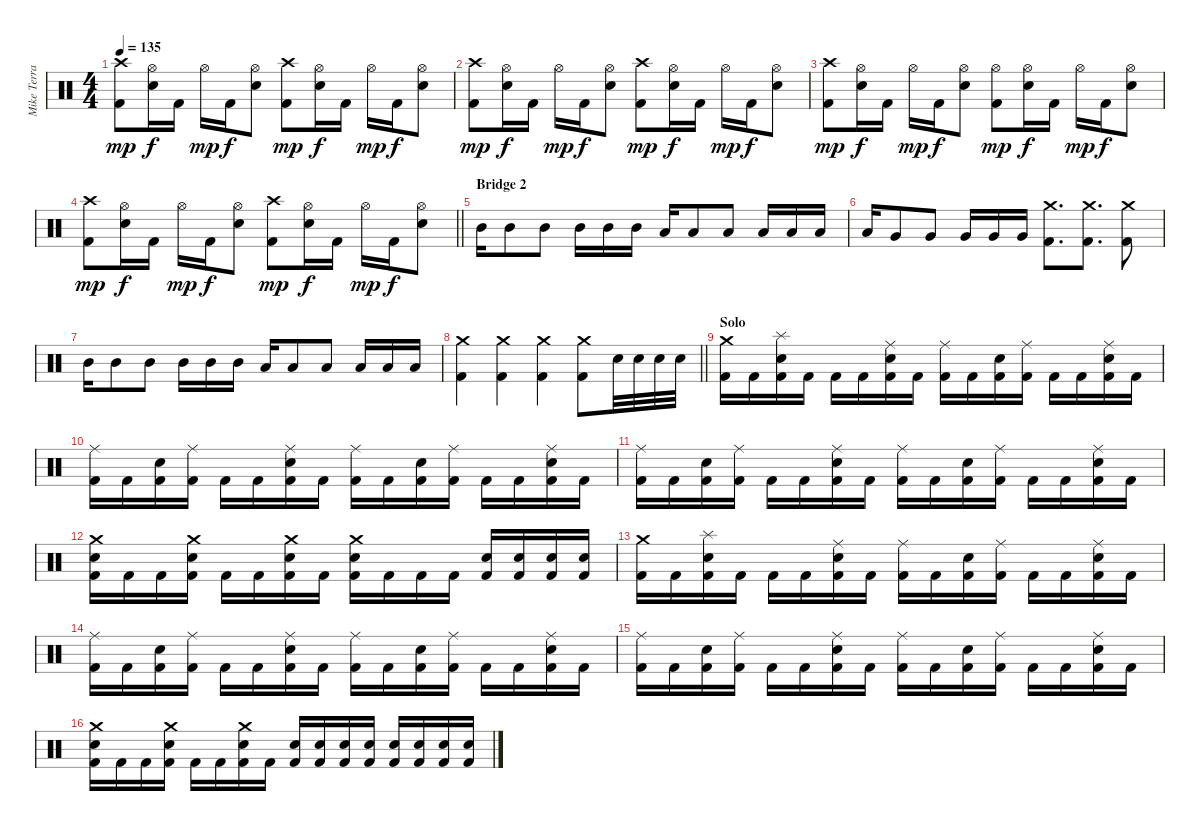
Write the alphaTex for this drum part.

\track ("Mike Terrana" "Mike Terra") {instrument percussion}
\staff {score}
\articulation defaults
\ts (4 4)
\tempo 135
\clef neutral
\ks c
("Crash high (hit)" "Kick (hit) 2").8{dy mp volume 16 balance 8} ("Hi-Hat (open)" "Snare (hit) 2").16{dy f} "Kick (hit) 2".16 "Hi-Hat (open)".16{dy mp} "Kick (hit) 2".16{dy f} ("Hi-Hat (open)" "Snare (hit) 2").8 ("Crash high (hit)" "Kick (hit) 2").8{dy mp} ("Hi-Hat (open)" "Snare (hit) 2").16{dy f} "Kick (hit) 2".16 "Hi-Hat (open)".16{dy mp} "Kick (hit) 2".16{dy f} ("Hi-Hat (open)" "Snare (hit) 2").8 |
("Crash high (hit)" "Kick (hit) 2").8{dy mp} ("Hi-Hat (open)" "Snare (hit) 2").16{dy f} "Kick (hit) 2".16 "Hi-Hat (open)".16{dy mp} "Kick (hit) 2".16{dy f} ("Hi-Hat (open)" "Snare (hit) 2").8 ("Crash high (hit)" "Kick (hit) 2").8{dy mp} ("Hi-Hat (open)" "Snare (hit) 2").16{dy f} "Kick (hit) 2".16 "Hi-Hat (open)".16{dy mp} "Kick (hit) 2".16{dy f} ("Hi-Hat (open)" "Snare (hit) 2").8 |
("Crash high (hit)" "Kick (hit) 2").8{dy mp} ("Hi-Hat (open)" "Snare (hit) 2").16{dy f} "Kick (hit) 2".16 "Hi-Hat (open)".16{dy mp} "Kick (hit) 2".16{dy f} ("Hi-Hat (open)" "Snare (hit) 2").8 ("Hi-Hat (open)" "Kick (hit) 2").8{dy mp} ("Hi-Hat (open)" "Snare (hit) 2").16{dy f} "Kick (hit) 2".16 "Hi-Hat (open)".16{dy mp} "Kick (hit) 2".16{dy f} ("Hi-Hat (open)" "Snare (hit) 2").8 |
\barLineRight lightlight
("Crash high (hit)" "Kick (hit) 2").8{dy mp} ("Hi-Hat (open)" "Snare (hit) 2").16{dy f} "Kick (hit) 2".16 "Hi-Hat (open)".16{dy mp} "Kick (hit) 2".16{dy f} ("Hi-Hat (open)" "Snare (hit) 2").8 ("Crash high (hit)" "Kick (hit) 2").8{dy mp} ("Hi-Hat (open)" "Snare (hit) 2").16{dy f} "Kick (hit) 2".16 "Hi-Hat (open)".16{dy mp} "Kick (hit) 2".16{dy f} ("Hi-Hat (open)" "Snare (hit) 2").8 |
\section ("" "Bridge 2")
"Mid Tom (hit)".16 "Mid Tom (hit)".8 "Mid Tom (hit)".8 "Mid Tom (hit)".16 "Mid Tom (hit)".16 "Mid Tom (hit)".16 "Low Tom (hit)".16 "Low Tom (hit)".8 "Low Tom (hit)".8 "Low Tom (hit)".16 "Low Tom (hit)".16 "Low Tom (hit)".16 |
"Low Tom (hit)".16 "Very Low Tom (hit)".8 "Very Low Tom (hit)".8 "Very Low Tom (hit)".16 "Very Low Tom (hit)".16 "Very Low Tom (hit)".16 ("Crash medium (hit)" "Kick (hit) 2").8{d} ("Crash medium (hit)" "Kick (hit) 2").8{d} ("Crash medium (hit)" "Kick (hit) 2").8 |
"Mid Tom (hit)".16 "Mid Tom (hit)".8 "Mid Tom (hit)".8 "Mid Tom (hit)".16 "Mid Tom (hit)".16 "Mid Tom (hit)".16 "Low Tom (hit)".16 "Low Tom (hit)".8 "Low Tom (hit)".8 "Low Tom (hit)".16 "Low Tom (hit)".16 "Low Tom (hit)".16 |
\barLineRight lightlight
("Crash medium (hit)" "Kick (hit) 2").4 ("Crash medium (hit)" "Kick (hit) 2").4 ("Crash medium (hit)" "Kick (hit) 2").4 ("Crash medium (hit)" "Kick (hit) 2").8 "Snare (hit) 2".32 "Snare (hit) 2".32 "Snare (hit) 2".32 "Snare (hit) 2".32 |
\section ("" "Solo")
("Crash medium (hit)" "Kick (hit) 2").16 "Kick (hit) 2".16 ("Splash (hit)" "Snare (hit) 2" "Kick (hit) 2").16 "Kick (hit) 2".16 "Kick (hit) 2".16 "Kick (hit) 2".16 ("Ride (middle)" "Snare (hit) 2" "Kick (hit) 2").16 "Kick (hit) 2".16 ("Ride (middle)" "Kick (hit) 2").16 "Kick (hit) 2".16 ("Snare (hit) 2" "Kick (hit) 2").16 ("Ride (middle)" "Kick (hit) 2").16 "Kick (hit) 2".16 "Kick (hit) 2".16 ("Ride (middle)" "Snare (hit) 2" "Kick (hit) 2").16 "Kick (hit) 2".16 |
("Ride (middle)" "Kick (hit) 2").16 "Kick (hit) 2".16 ("Snare (hit) 2" "Kick (hit) 2").16 ("Ride (middle)" "Kick (hit) 2").16 "Kick (hit) 2".16 "Kick (hit) 2".16 ("Ride (middle)" "Snare (hit) 2" "Kick (hit) 2").16 "Kick (hit) 2".16 ("Ride (middle)" "Kick (hit) 2").16 "Kick (hit) 2".16 ("Snare (hit) 2" "Kick (hit) 2").16 ("Ride (middle)" "Kick (hit) 2").16 "Kick (hit) 2".16 "Kick (hit) 2".16 ("Ride (middle)" "Snare (hit) 2" "Kick (hit) 2").16 "Kick (hit) 2".16 |
("Ride (middle)" "Kick (hit) 2").16 "Kick (hit) 2".16 ("Snare (hit) 2" "Kick (hit) 2").16 ("Ride (middle)" "Kick (hit) 2").16 "Kick (hit) 2".16 "Kick (hit) 2".16 ("Ride (middle)" "Snare (hit) 2" "Kick (hit) 2").16 "Kick (hit) 2".16 ("Ride (middle)" "Kick (hit) 2").16 "Kick (hit) 2".16 ("Snare (hit) 2" "Kick (hit) 2").16 ("Ride (middle)" "Kick (hit) 2").16 "Kick (hit) 2".16 "Kick (hit) 2".16 ("Ride (middle)" "Snare (hit) 2" "Kick (hit) 2").16 "Kick (hit) 2".16 |
("Crash medium (hit)" "Snare (hit) 2" "Kick (hit) 2").16 "Kick (hit) 2".16 "Kick (hit) 2".16 ("Crash medium (hit)" "Snare (hit) 2" "Kick (hit) 2").16 "Kick (hit) 2".16 "Kick (hit) 2".16 ("Crash medium (hit)" "Snare (hit) 2" "Kick (hit) 2").16 "Kick (hit) 2".16 ("Crash medium (hit)" "Snare (hit) 2" "Kick (hit) 2").16 "Kick (hit) 2".16 "Kick (hit) 2".16 "Kick (hit) 2".16 ("Snare (hit) 2" "Kick (hit) 2").16 ("Snare (hit) 2" "Kick (hit) 2").16 ("Snare (hit) 2" "Kick (hit) 2").16 ("Snare (hit) 2" "Kick (hit) 2").16 |
("Crash medium (hit)" "Kick (hit) 2").16 "Kick (hit) 2".16 ("Splash (hit)" "Snare (hit) 2" "Kick (hit) 2").16 "Kick (hit) 2".16 "Kick (hit) 2".16 "Kick (hit) 2".16 ("Ride (middle)" "Snare (hit) 2" "Kick (hit) 2").16 "Kick (hit) 2".16 ("Ride (middle)" "Kick (hit) 2").16 "Kick (hit) 2".16 ("Snare (hit) 2" "Kick (hit) 2").16 ("Ride (middle)" "Kick (hit) 2").16 "Kick (hit) 2".16 "Kick (hit) 2".16 ("Ride (middle)" "Snare (hit) 2" "Kick (hit) 2").16 "Kick (hit) 2".16 |
("Ride (middle)" "Kick (hit) 2").16 "Kick (hit) 2".16 ("Snare (hit) 2" "Kick (hit) 2").16 ("Ride (middle)" "Kick (hit) 2").16 "Kick (hit) 2".16 "Kick (hit) 2".16 ("Ride (middle)" "Snare (hit) 2" "Kick (hit) 2").16 "Kick (hit) 2".16 ("Ride (middle)" "Kick (hit) 2").16 "Kick (hit) 2".16 ("Snare (hit) 2" "Kick (hit) 2").16 ("Ride (middle)" "Kick (hit) 2").16 "Kick (hit) 2".16 "Kick (hit) 2".16 ("Ride (middle)" "Snare (hit) 2" "Kick (hit) 2").16 "Kick (hit) 2".16 |
("Ride (middle)" "Kick (hit) 2").16 "Kick (hit) 2".16 ("Snare (hit) 2" "Kick (hit) 2").16 ("Ride (middle)" "Kick (hit) 2").16 "Kick (hit) 2".16 "Kick (hit) 2".16 ("Ride (middle)" "Snare (hit) 2" "Kick (hit) 2").16 "Kick (hit) 2".16 ("Ride (middle)" "Kick (hit) 2").16 "Kick (hit) 2".16 ("Snare (hit) 2" "Kick (hit) 2").16 ("Ride (middle)" "Kick (hit) 2").16 "Kick (hit) 2".16 "Kick (hit) 2".16 ("Ride (middle)" "Snare (hit) 2" "Kick (hit) 2").16 "Kick (hit) 2".16 |
("Crash medium (hit)" "Snare (hit) 2" "Kick (hit) 2").16 "Kick (hit) 2".16 "Kick (hit) 2".16 ("Crash medium (hit)" "Snare (hit) 2" "Kick (hit) 2").16 "Kick (hit) 2".16 "Kick (hit) 2".16 ("Crash medium (hit)" "Snare (hit) 2" "Kick (hit) 2").16 "Kick (hit) 2".16 ("Snare (hit) 2" "Kick (hit) 2").16 ("Snare (hit) 2" "Kick (hit) 2").16 ("Snare (hit) 2" "Kick (hit) 2").16 ("Snare (hit) 2" "Kick (hit) 2").16 ("Snare (hit) 2" "Kick (hit) 2").16 ("Snare (hit) 2" "Kick (hit) 2").16 ("Snare (hit) 2" "Kick (hit) 2").16 ("Snare (hit) 2" "Kick (hit) 2").16
